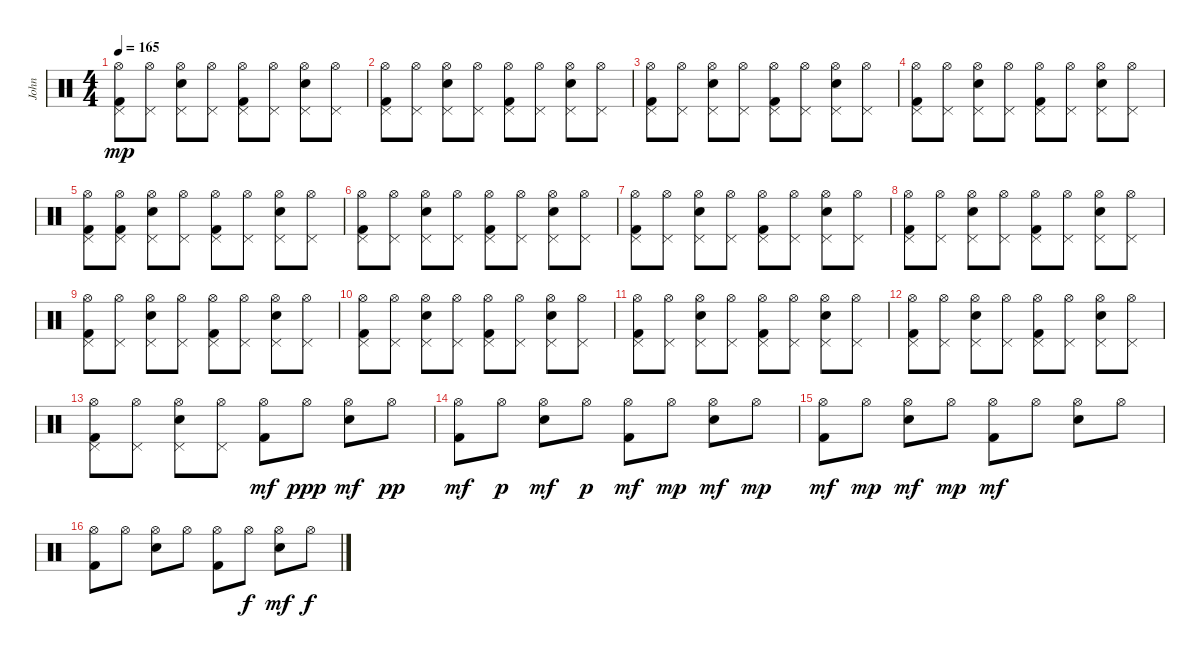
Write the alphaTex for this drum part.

\track ("John" "John") {instrument percussion}
\staff {score}
\articulation defaults
\ts (4 4)
\tempo 165
\clef neutral
\ks c
("Hi-Hat (open)" "Pedal Hi-Hat (hit)" "Kick (hit) 2").8{dy mp} ("Hi-Hat (open)" "Pedal Hi-Hat (hit)").8 ("Hi-Hat (open)" "Pedal Hi-Hat (hit)" "Electric Snare (hit)").8 ("Hi-Hat (open)" "Pedal Hi-Hat (hit)").8 ("Hi-Hat (open)" "Pedal Hi-Hat (hit)" "Kick (hit) 2").8 ("Hi-Hat (open)" "Pedal Hi-Hat (hit)").8 ("Hi-Hat (open)" "Pedal Hi-Hat (hit)" "Electric Snare (hit)").8 ("Hi-Hat (open)" "Pedal Hi-Hat (hit)").8 |
("Hi-Hat (open)" "Pedal Hi-Hat (hit)" "Kick (hit) 2").8 ("Hi-Hat (open)" "Pedal Hi-Hat (hit)").8 ("Hi-Hat (open)" "Pedal Hi-Hat (hit)" "Electric Snare (hit)").8 ("Hi-Hat (open)" "Pedal Hi-Hat (hit)").8 ("Hi-Hat (open)" "Pedal Hi-Hat (hit)" "Kick (hit) 2").8 ("Hi-Hat (open)" "Pedal Hi-Hat (hit)").8 ("Hi-Hat (open)" "Pedal Hi-Hat (hit)" "Electric Snare (hit)").8 ("Hi-Hat (open)" "Pedal Hi-Hat (hit)").8 |
("Hi-Hat (open)" "Pedal Hi-Hat (hit)" "Kick (hit) 2").8 ("Hi-Hat (open)" "Pedal Hi-Hat (hit)").8 ("Hi-Hat (open)" "Pedal Hi-Hat (hit)" "Electric Snare (hit)").8 ("Hi-Hat (open)" "Pedal Hi-Hat (hit)").8 ("Hi-Hat (open)" "Pedal Hi-Hat (hit)" "Kick (hit) 2").8 ("Hi-Hat (open)" "Pedal Hi-Hat (hit)").8 ("Hi-Hat (open)" "Pedal Hi-Hat (hit)" "Electric Snare (hit)").8 ("Hi-Hat (open)" "Pedal Hi-Hat (hit)").8 |
("Hi-Hat (open)" "Pedal Hi-Hat (hit)" "Kick (hit) 2").8 ("Hi-Hat (open)" "Pedal Hi-Hat (hit)").8 ("Hi-Hat (open)" "Pedal Hi-Hat (hit)" "Electric Snare (hit)").8 ("Hi-Hat (open)" "Pedal Hi-Hat (hit)").8 ("Hi-Hat (open)" "Pedal Hi-Hat (hit)" "Kick (hit) 2").8 ("Hi-Hat (open)" "Pedal Hi-Hat (hit)").8 ("Hi-Hat (open)" "Pedal Hi-Hat (hit)" "Electric Snare (hit)").8 ("Hi-Hat (open)" "Pedal Hi-Hat (hit)").8 |
("Hi-Hat (open)" "Pedal Hi-Hat (hit)" "Kick (hit) 2").8 ("Hi-Hat (open)" "Pedal Hi-Hat (hit)" "Kick (hit) 2").8 ("Hi-Hat (open)" "Pedal Hi-Hat (hit)" "Electric Snare (hit)").8 ("Hi-Hat (open)" "Pedal Hi-Hat (hit)").8 ("Hi-Hat (open)" "Pedal Hi-Hat (hit)" "Kick (hit) 2").8 ("Hi-Hat (open)" "Pedal Hi-Hat (hit)").8 ("Hi-Hat (open)" "Pedal Hi-Hat (hit)" "Electric Snare (hit)").8 ("Hi-Hat (open)" "Pedal Hi-Hat (hit)").8 |
("Hi-Hat (open)" "Pedal Hi-Hat (hit)" "Kick (hit) 2").8 ("Hi-Hat (open)" "Pedal Hi-Hat (hit)").8 ("Hi-Hat (open)" "Pedal Hi-Hat (hit)" "Electric Snare (hit)").8 ("Hi-Hat (open)" "Pedal Hi-Hat (hit)").8 ("Hi-Hat (open)" "Pedal Hi-Hat (hit)" "Kick (hit) 2").8 ("Hi-Hat (open)" "Pedal Hi-Hat (hit)").8 ("Hi-Hat (open)" "Pedal Hi-Hat (hit)" "Electric Snare (hit)").8 ("Hi-Hat (open)" "Pedal Hi-Hat (hit)").8 |
("Hi-Hat (open)" "Pedal Hi-Hat (hit)" "Kick (hit) 2").8 ("Hi-Hat (open)" "Pedal Hi-Hat (hit)").8 ("Hi-Hat (open)" "Pedal Hi-Hat (hit)" "Electric Snare (hit)").8 ("Hi-Hat (open)" "Pedal Hi-Hat (hit)").8 ("Hi-Hat (open)" "Pedal Hi-Hat (hit)" "Kick (hit) 2").8 ("Hi-Hat (open)" "Pedal Hi-Hat (hit)").8 ("Hi-Hat (open)" "Pedal Hi-Hat (hit)" "Electric Snare (hit)").8 ("Hi-Hat (open)" "Pedal Hi-Hat (hit)").8 |
("Hi-Hat (open)" "Pedal Hi-Hat (hit)" "Kick (hit) 2").8 ("Hi-Hat (open)" "Pedal Hi-Hat (hit)").8 ("Hi-Hat (open)" "Pedal Hi-Hat (hit)" "Electric Snare (hit)").8 ("Hi-Hat (open)" "Pedal Hi-Hat (hit)").8 ("Hi-Hat (open)" "Pedal Hi-Hat (hit)" "Kick (hit) 2").8 ("Hi-Hat (open)" "Pedal Hi-Hat (hit)").8 ("Hi-Hat (open)" "Pedal Hi-Hat (hit)" "Electric Snare (hit)").8 ("Hi-Hat (open)" "Pedal Hi-Hat (hit)").8 |
("Hi-Hat (open)" "Pedal Hi-Hat (hit)" "Kick (hit) 2").8 ("Hi-Hat (open)" "Pedal Hi-Hat (hit)").8 ("Hi-Hat (open)" "Pedal Hi-Hat (hit)" "Electric Snare (hit)").8 ("Hi-Hat (open)" "Pedal Hi-Hat (hit)").8 ("Hi-Hat (open)" "Pedal Hi-Hat (hit)" "Kick (hit) 2").8 ("Hi-Hat (open)" "Pedal Hi-Hat (hit)").8 ("Hi-Hat (open)" "Pedal Hi-Hat (hit)" "Electric Snare (hit)").8 ("Hi-Hat (open)" "Pedal Hi-Hat (hit)").8 |
("Hi-Hat (open)" "Pedal Hi-Hat (hit)" "Kick (hit) 2").8 ("Hi-Hat (open)" "Pedal Hi-Hat (hit)").8 ("Hi-Hat (open)" "Pedal Hi-Hat (hit)" "Electric Snare (hit)").8 ("Hi-Hat (open)" "Pedal Hi-Hat (hit)").8 ("Hi-Hat (open)" "Pedal Hi-Hat (hit)" "Kick (hit) 2").8 ("Hi-Hat (open)" "Pedal Hi-Hat (hit)").8 ("Hi-Hat (open)" "Pedal Hi-Hat (hit)" "Electric Snare (hit)").8 ("Hi-Hat (open)" "Pedal Hi-Hat (hit)").8 |
("Hi-Hat (open)" "Pedal Hi-Hat (hit)" "Kick (hit) 2").8 ("Hi-Hat (open)" "Pedal Hi-Hat (hit)").8 ("Hi-Hat (open)" "Pedal Hi-Hat (hit)" "Electric Snare (hit)").8 ("Hi-Hat (open)" "Pedal Hi-Hat (hit)").8 ("Hi-Hat (open)" "Pedal Hi-Hat (hit)" "Kick (hit) 2").8 ("Hi-Hat (open)" "Pedal Hi-Hat (hit)").8 ("Hi-Hat (open)" "Pedal Hi-Hat (hit)" "Electric Snare (hit)").8 ("Hi-Hat (open)" "Pedal Hi-Hat (hit)").8 |
("Hi-Hat (open)" "Pedal Hi-Hat (hit)" "Kick (hit) 2").8 ("Hi-Hat (open)" "Pedal Hi-Hat (hit)").8 ("Hi-Hat (open)" "Pedal Hi-Hat (hit)" "Electric Snare (hit)").8 ("Hi-Hat (open)" "Pedal Hi-Hat (hit)").8 ("Hi-Hat (open)" "Pedal Hi-Hat (hit)" "Kick (hit) 2").8 ("Hi-Hat (open)" "Pedal Hi-Hat (hit)").8 ("Hi-Hat (open)" "Pedal Hi-Hat (hit)" "Electric Snare (hit)").8 ("Hi-Hat (open)" "Pedal Hi-Hat (hit)").8 |
("Hi-Hat (open)" "Pedal Hi-Hat (hit)" "Kick (hit) 2").8 ("Hi-Hat (open)" "Pedal Hi-Hat (hit)").8 ("Hi-Hat (open)" "Pedal Hi-Hat (hit)" "Electric Snare (hit)").8 ("Hi-Hat (open)" "Pedal Hi-Hat (hit)").8 ("Hi-Hat (open)" "Kick (hit) 2").8{dy mf} "Hi-Hat (open)".8{dy ppp} ("Hi-Hat (open)" "Electric Snare (hit)").8{dy mf} "Hi-Hat (open)".8{dy pp} |
("Hi-Hat (open)" "Kick (hit) 2").8{dy mf} "Hi-Hat (open)".8{dy p} ("Hi-Hat (open)" "Electric Snare (hit)").8{dy mf} "Hi-Hat (open)".8{dy p} ("Hi-Hat (open)" "Kick (hit) 2").8{dy mf} "Hi-Hat (open)".8{dy mp} ("Hi-Hat (open)" "Electric Snare (hit)").8{dy mf} "Hi-Hat (open)".8{dy mp} |
("Hi-Hat (open)" "Kick (hit) 2").8{dy mf} "Hi-Hat (open)".8{dy mp} ("Hi-Hat (open)" "Electric Snare (hit)").8{dy mf} "Hi-Hat (open)".8{dy mp} ("Hi-Hat (open)" "Kick (hit) 2").8{dy mf} "Hi-Hat (open)".8 ("Hi-Hat (open)" "Electric Snare (hit)").8 "Hi-Hat (open)".8 |
("Hi-Hat (open)" "Kick (hit) 2").8 "Hi-Hat (open)".8 ("Hi-Hat (open)" "Electric Snare (hit)").8 "Hi-Hat (open)".8 ("Hi-Hat (open)" "Kick (hit) 2").8 "Hi-Hat (open)".8{dy f} ("Hi-Hat (open)" "Electric Snare (hit)").8{dy mf} "Hi-Hat (open)".8{dy f}
